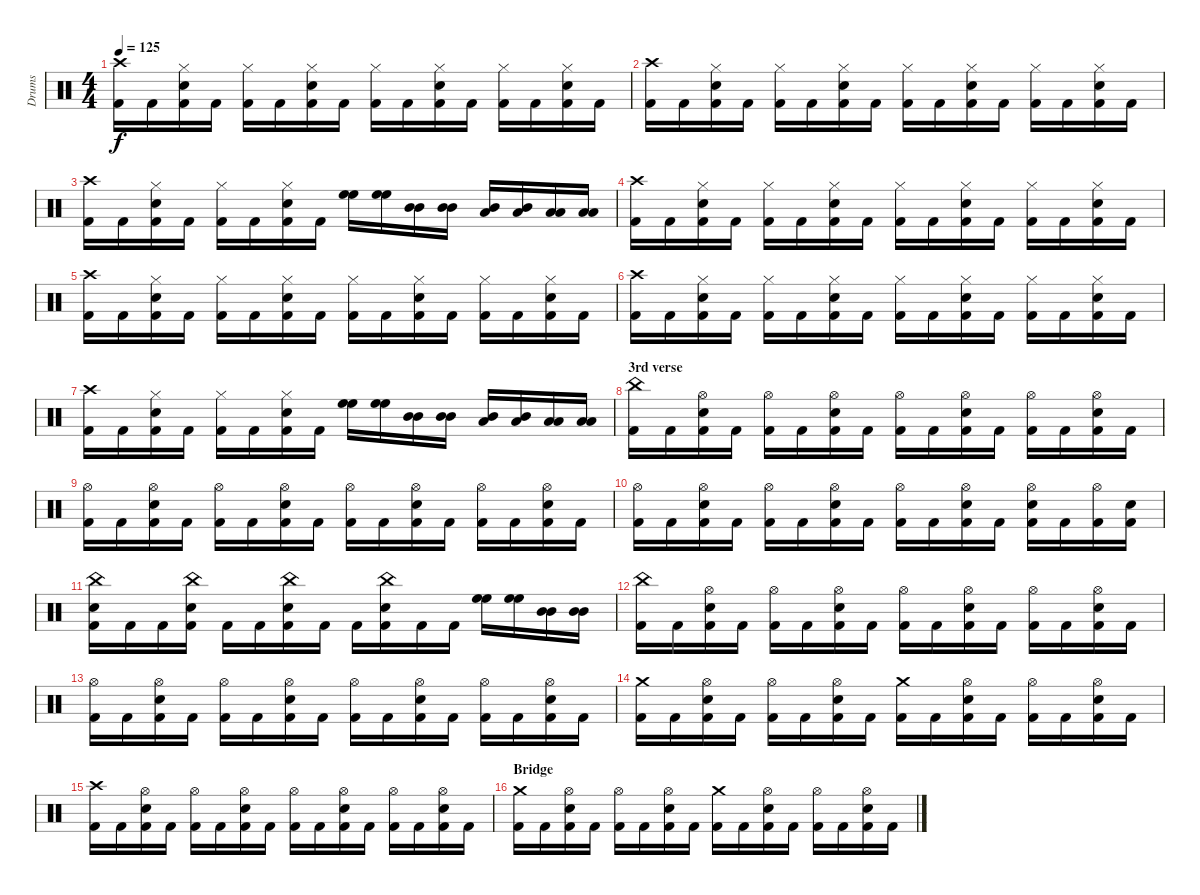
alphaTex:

\track ("Drums" "Drums") {instrument percussion}
\staff {score}
\articulation defaults
\ts (4 4)
\tempo 125
\clef neutral
\ks c
("Crash high (hit)" "Kick (hit) 2").16{dy f} "Kick (hit) 2".16 ("Hi-Hat (closed)" "Snare (hit) 2" "Kick (hit) 2").16 "Kick (hit) 2".16 ("Hi-Hat (closed)" "Kick (hit) 2").16 "Kick (hit) 2".16 ("Hi-Hat (closed)" "Snare (hit) 2" "Kick (hit) 2").16 "Kick (hit) 2".16 ("Hi-Hat (closed)" "Kick (hit) 2").16 "Kick (hit) 2".16 ("Hi-Hat (closed)" "Snare (hit) 2" "Kick (hit) 2").16 "Kick (hit) 2".16 ("Hi-Hat (closed)" "Kick (hit) 2").16 "Kick (hit) 2".16 ("Hi-Hat (closed)" "Snare (hit) 2" "Kick (hit) 2").16 "Kick (hit) 2".16 |
("Crash high (hit)" "Kick (hit) 2").16 "Kick (hit) 2".16 ("Hi-Hat (closed)" "Snare (hit) 2" "Kick (hit) 2").16 "Kick (hit) 2".16 ("Hi-Hat (closed)" "Kick (hit) 2").16 "Kick (hit) 2".16 ("Hi-Hat (closed)" "Snare (hit) 2" "Kick (hit) 2").16 "Kick (hit) 2".16 ("Hi-Hat (closed)" "Kick (hit) 2").16 "Kick (hit) 2".16 ("Hi-Hat (closed)" "Snare (hit) 2" "Kick (hit) 2").16 "Kick (hit) 2".16 ("Hi-Hat (closed)" "Kick (hit) 2").16 "Kick (hit) 2".16 ("Hi-Hat (closed)" "Snare (hit) 2" "Kick (hit) 2").16 "Kick (hit) 2".16 |
("Crash high (hit)" "Kick (hit) 2").16 "Kick (hit) 2".16 ("Hi-Hat (closed)" "Snare (hit) 2" "Kick (hit) 2").16 "Kick (hit) 2".16 ("Hi-Hat (closed)" "Kick (hit) 2").16 "Kick (hit) 2".16 ("Hi-Hat (closed)" "Snare (hit) 2" "Kick (hit) 2").16 "Kick (hit) 2".16 ("High Floor Tom (hit)" "High Floor Tom (hit)").16 ("High Floor Tom (hit)" "High Floor Tom (hit)").16 ("Mid Tom (hit)" "Mid Tom (hit)").16 ("Mid Tom (hit)" "Mid Tom (hit)").16 ("Low Tom (hit)" "Mid Tom (hit)").16 ("Low Tom (hit)" "Mid Tom (hit)").16 ("Low Floor Tom (hit)" "Low Floor Tom (hit)").16 ("Low Floor Tom (hit)" "Low Floor Tom (hit)").16 |
("Crash high (hit)" "Kick (hit) 2").16 "Kick (hit) 2".16 ("Hi-Hat (closed)" "Snare (hit) 2" "Kick (hit) 2").16 "Kick (hit) 2".16 ("Hi-Hat (closed)" "Kick (hit) 2").16 "Kick (hit) 2".16 ("Hi-Hat (closed)" "Snare (hit) 2" "Kick (hit) 2").16 "Kick (hit) 2".16 ("Hi-Hat (closed)" "Kick (hit) 2").16 "Kick (hit) 2".16 ("Hi-Hat (closed)" "Snare (hit) 2" "Kick (hit) 2").16 "Kick (hit) 2".16 ("Hi-Hat (closed)" "Kick (hit) 2").16 "Kick (hit) 2".16 ("Hi-Hat (closed)" "Snare (hit) 2" "Kick (hit) 2").16 "Kick (hit) 2".16 |
("Crash high (hit)" "Kick (hit) 2").16 "Kick (hit) 2".16 ("Hi-Hat (closed)" "Snare (hit) 2" "Kick (hit) 2").16 "Kick (hit) 2".16 ("Hi-Hat (closed)" "Kick (hit) 2").16 "Kick (hit) 2".16 ("Hi-Hat (closed)" "Snare (hit) 2" "Kick (hit) 2").16 "Kick (hit) 2".16 ("Hi-Hat (closed)" "Kick (hit) 2").16 "Kick (hit) 2".16 ("Hi-Hat (closed)" "Snare (hit) 2" "Kick (hit) 2").16 "Kick (hit) 2".16 ("Hi-Hat (closed)" "Kick (hit) 2").16 "Kick (hit) 2".16 ("Hi-Hat (closed)" "Snare (hit) 2" "Kick (hit) 2").16 "Kick (hit) 2".16 |
("Crash high (hit)" "Kick (hit) 2").16 "Kick (hit) 2".16 ("Hi-Hat (closed)" "Snare (hit) 2" "Kick (hit) 2").16 "Kick (hit) 2".16 ("Hi-Hat (closed)" "Kick (hit) 2").16 "Kick (hit) 2".16 ("Hi-Hat (closed)" "Snare (hit) 2" "Kick (hit) 2").16 "Kick (hit) 2".16 ("Hi-Hat (closed)" "Kick (hit) 2").16 "Kick (hit) 2".16 ("Hi-Hat (closed)" "Snare (hit) 2" "Kick (hit) 2").16 "Kick (hit) 2".16 ("Hi-Hat (closed)" "Kick (hit) 2").16 "Kick (hit) 2".16 ("Hi-Hat (closed)" "Snare (hit) 2" "Kick (hit) 2").16 "Kick (hit) 2".16 |
("Crash high (hit)" "Kick (hit) 2").16 "Kick (hit) 2".16 ("Hi-Hat (closed)" "Snare (hit) 2" "Kick (hit) 2").16 "Kick (hit) 2".16 ("Hi-Hat (closed)" "Kick (hit) 2").16 "Kick (hit) 2".16 ("Hi-Hat (closed)" "Snare (hit) 2" "Kick (hit) 2").16 "Kick (hit) 2".16 ("High Floor Tom (hit)" "High Floor Tom (hit)").16 ("High Floor Tom (hit)" "High Floor Tom (hit)").16 ("Mid Tom (hit)" "Mid Tom (hit)").16 ("Mid Tom (hit)" "Mid Tom (hit)").16 ("Low Tom (hit)" "Mid Tom (hit)").16 ("Low Tom (hit)" "Mid Tom (hit)").16 ("Low Floor Tom (hit)" "Low Floor Tom (hit)").16 ("Low Floor Tom (hit)" "Low Floor Tom (hit)").16 |
\section ("" "3rd verse")
("China (hit)" "Kick (hit) 2").16 "Kick (hit) 2".16 ("Hi-Hat (open)" "Snare (hit) 2" "Kick (hit) 2").16 "Kick (hit) 2".16 ("Hi-Hat (open)" "Kick (hit) 2").16 "Kick (hit) 2".16 ("Hi-Hat (open)" "Snare (hit) 2" "Kick (hit) 2").16 "Kick (hit) 2".16 ("Hi-Hat (open)" "Kick (hit) 2").16 "Kick (hit) 2".16 ("Hi-Hat (open)" "Snare (hit) 2" "Kick (hit) 2").16 "Kick (hit) 2".16 ("Hi-Hat (open)" "Kick (hit) 2").16 "Kick (hit) 2".16 ("Hi-Hat (open)" "Snare (hit) 2" "Kick (hit) 2").16 "Kick (hit) 2".16 |
("Hi-Hat (open)" "Kick (hit) 2").16 "Kick (hit) 2".16 ("Hi-Hat (open)" "Snare (hit) 2" "Kick (hit) 2").16 "Kick (hit) 2".16 ("Hi-Hat (open)" "Kick (hit) 2").16 "Kick (hit) 2".16 ("Hi-Hat (open)" "Snare (hit) 2" "Kick (hit) 2").16 "Kick (hit) 2".16 ("Hi-Hat (open)" "Kick (hit) 2").16 "Kick (hit) 2".16 ("Hi-Hat (open)" "Snare (hit) 2" "Kick (hit) 2").16 "Kick (hit) 2".16 ("Hi-Hat (open)" "Kick (hit) 2").16 "Kick (hit) 2".16 ("Hi-Hat (open)" "Snare (hit) 2" "Kick (hit) 2").16 "Kick (hit) 2".16 |
("Hi-Hat (open)" "Kick (hit) 2").16 "Kick (hit) 2".16 ("Hi-Hat (open)" "Snare (hit) 2" "Kick (hit) 2").16 "Kick (hit) 2".16 ("Hi-Hat (open)" "Kick (hit) 2").16 "Kick (hit) 2".16 ("Hi-Hat (open)" "Snare (hit) 2" "Kick (hit) 2").16 "Kick (hit) 2".16 ("Hi-Hat (open)" "Kick (hit) 2").16 "Kick (hit) 2".16 ("Hi-Hat (open)" "Snare (hit) 2" "Kick (hit) 2").16 "Kick (hit) 2".16 ("Hi-Hat (open)" "Snare (hit) 2" "Kick (hit) 2").16 "Kick (hit) 2".16 ("Hi-Hat (open)" "Kick (hit) 2").16 ("Snare (hit) 2" "Kick (hit) 2").16 |
("China (hit)" "Snare (hit) 2" "Kick (hit) 2").16 "Kick (hit) 2".16 "Kick (hit) 2".16 ("China (hit)" "Snare (hit) 2" "Kick (hit) 2").16 "Kick (hit) 2".16 "Kick (hit) 2".16 ("China (hit)" "Snare (hit) 2" "Kick (hit) 2").16 "Kick (hit) 2".16 "Kick (hit) 2".16 ("China (hit)" "Snare (hit) 2" "Kick (hit) 2").16 "Kick (hit) 2".16 "Kick (hit) 2".16 ("High Floor Tom (hit)" "High Floor Tom (hit)").16 ("High Floor Tom (hit)" "High Floor Tom (hit)").16 ("Mid Tom (hit)" "Mid Tom (hit)").16 ("Mid Tom (hit)" "Mid Tom (hit)").16 |
("China (hit)" "Kick (hit) 2").16 "Kick (hit) 2".16 ("Hi-Hat (open)" "Snare (hit) 2" "Kick (hit) 2").16 "Kick (hit) 2".16 ("Hi-Hat (open)" "Kick (hit) 2").16 "Kick (hit) 2".16 ("Hi-Hat (open)" "Snare (hit) 2" "Kick (hit) 2").16 "Kick (hit) 2".16 ("Hi-Hat (open)" "Kick (hit) 2").16 "Kick (hit) 2".16 ("Hi-Hat (open)" "Snare (hit) 2" "Kick (hit) 2").16 "Kick (hit) 2".16 ("Hi-Hat (open)" "Kick (hit) 2").16 "Kick (hit) 2".16 ("Hi-Hat (open)" "Snare (hit) 2" "Kick (hit) 2").16 "Kick (hit) 2".16 |
("Hi-Hat (open)" "Kick (hit) 2").16 "Kick (hit) 2".16 ("Hi-Hat (open)" "Snare (hit) 2" "Kick (hit) 2").16 "Kick (hit) 2".16 ("Hi-Hat (open)" "Kick (hit) 2").16 "Kick (hit) 2".16 ("Hi-Hat (open)" "Snare (hit) 2" "Kick (hit) 2").16 "Kick (hit) 2".16 ("Hi-Hat (open)" "Kick (hit) 2").16 "Kick (hit) 2".16 ("Hi-Hat (open)" "Snare (hit) 2" "Kick (hit) 2").16 "Kick (hit) 2".16 ("Hi-Hat (open)" "Kick (hit) 2").16 "Kick (hit) 2".16 ("Hi-Hat (open)" "Snare (hit) 2" "Kick (hit) 2").16 "Kick (hit) 2".16 |
("Crash medium (hit)" "Kick (hit) 2").16 "Kick (hit) 2".16 ("Hi-Hat (open)" "Snare (hit) 2" "Kick (hit) 2").16 "Kick (hit) 2".16 ("Hi-Hat (open)" "Kick (hit) 2").16 "Kick (hit) 2".16 ("Hi-Hat (open)" "Snare (hit) 2" "Kick (hit) 2").16 "Kick (hit) 2".16 ("Crash medium (hit)" "Kick (hit) 2").16 "Kick (hit) 2".16 ("Hi-Hat (open)" "Snare (hit) 2" "Kick (hit) 2").16 "Kick (hit) 2".16 ("Hi-Hat (open)" "Kick (hit) 2").16 "Kick (hit) 2".16 ("Hi-Hat (open)" "Snare (hit) 2" "Kick (hit) 2").16 "Kick (hit) 2".16 |
("Crash high (hit)" "Kick (hit) 2").16 "Kick (hit) 2".16 ("Hi-Hat (open)" "Snare (hit) 2" "Kick (hit) 2").16 "Kick (hit) 2".16 ("Hi-Hat (open)" "Kick (hit) 2").16 "Kick (hit) 2".16 ("Hi-Hat (open)" "Snare (hit) 2" "Kick (hit) 2").16 "Kick (hit) 2".16 ("Hi-Hat (open)" "Kick (hit) 2").16 "Kick (hit) 2".16 ("Hi-Hat (open)" "Snare (hit) 2" "Kick (hit) 2").16 "Kick (hit) 2".16 ("Hi-Hat (open)" "Kick (hit) 2").16 "Kick (hit) 2".16 ("Hi-Hat (open)" "Snare (hit) 2" "Kick (hit) 2").16 "Kick (hit) 2".16 |
\section ("" "Bridge")
("Crash medium (hit)" "Kick (hit) 2").16 "Kick (hit) 2".16 ("Hi-Hat (open)" "Snare (hit) 2" "Kick (hit) 2").16 "Kick (hit) 2".16 ("Hi-Hat (open)" "Kick (hit) 2").16 "Kick (hit) 2".16 ("Hi-Hat (open)" "Snare (hit) 2" "Kick (hit) 2").16 "Kick (hit) 2".16 ("Crash medium (hit)" "Kick (hit) 2").16 "Kick (hit) 2".16 ("Hi-Hat (open)" "Snare (hit) 2" "Kick (hit) 2").16 "Kick (hit) 2".16 ("Hi-Hat (open)" "Kick (hit) 2").16 "Kick (hit) 2".16 ("Hi-Hat (open)" "Snare (hit) 2" "Kick (hit) 2").16 "Kick (hit) 2".16
